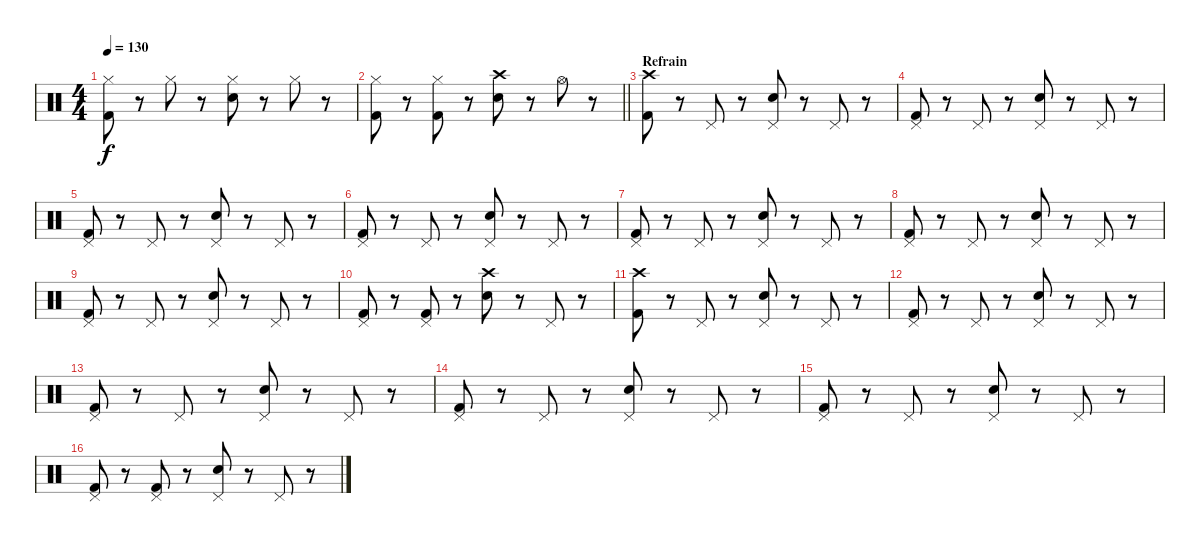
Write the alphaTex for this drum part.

\track "" {instrument percussion}
\staff {score}
\articulation defaults
\ts (4 4)
\tempo 130
\clef neutral
\ks c
("Hi-Hat (closed)" "Kick (hit) 2").8{dy f} r.8 "Hi-Hat (closed)".8 r.8 ("Hi-Hat (closed)" "Electric Snare (hit)").8 r.8 "Hi-Hat (closed)".8 r.8 |
\barLineRight lightlight
("Hi-Hat (closed)" "Kick (hit) 2").8 r.8 ("Hi-Hat (closed)" "Kick (hit) 2").8 r.8 ("Crash high (hit)" "Electric Snare (hit)").8 r.8 "Hi-Hat (open)".8 r.8 |
\section ("" "Refrain")
("Crash high (hit)" "Kick (hit) 2").8 r.8 "Pedal Hi-Hat (hit)".8 r.8 ("Pedal Hi-Hat (hit)" "Electric Snare (hit)").8 r.8 "Pedal Hi-Hat (hit)".8 r.8 |
("Pedal Hi-Hat (hit)" "Kick (hit) 2").8 r.8 "Pedal Hi-Hat (hit)".8 r.8 ("Pedal Hi-Hat (hit)" "Electric Snare (hit)").8 r.8 "Pedal Hi-Hat (hit)".8 r.8 |
("Pedal Hi-Hat (hit)" "Kick (hit) 2").8 r.8 "Pedal Hi-Hat (hit)".8 r.8 ("Pedal Hi-Hat (hit)" "Electric Snare (hit)").8 r.8 "Pedal Hi-Hat (hit)".8 r.8 |
("Pedal Hi-Hat (hit)" "Kick (hit) 2").8 r.8 "Pedal Hi-Hat (hit)".8 r.8 ("Pedal Hi-Hat (hit)" "Electric Snare (hit)").8 r.8 "Pedal Hi-Hat (hit)".8 r.8 |
("Pedal Hi-Hat (hit)" "Kick (hit) 2").8 r.8 "Pedal Hi-Hat (hit)".8 r.8 ("Pedal Hi-Hat (hit)" "Electric Snare (hit)").8 r.8 "Pedal Hi-Hat (hit)".8 r.8 |
("Pedal Hi-Hat (hit)" "Kick (hit) 2").8 r.8 "Pedal Hi-Hat (hit)".8 r.8 ("Pedal Hi-Hat (hit)" "Electric Snare (hit)").8 r.8 "Pedal Hi-Hat (hit)".8 r.8 |
("Pedal Hi-Hat (hit)" "Kick (hit) 2").8 r.8 "Pedal Hi-Hat (hit)".8 r.8 ("Pedal Hi-Hat (hit)" "Electric Snare (hit)").8 r.8 "Pedal Hi-Hat (hit)".8 r.8 |
("Pedal Hi-Hat (hit)" "Kick (hit) 2").8 r.8 ("Pedal Hi-Hat (hit)" "Kick (hit) 2").8 r.8 ("Crash high (hit)" "Electric Snare (hit)").8 r.8 "Pedal Hi-Hat (hit)".8 r.8 |
("Crash high (hit)" "Kick (hit) 2").8 r.8 "Pedal Hi-Hat (hit)".8 r.8 ("Pedal Hi-Hat (hit)" "Electric Snare (hit)").8 r.8 "Pedal Hi-Hat (hit)".8 r.8 |
("Pedal Hi-Hat (hit)" "Kick (hit) 2").8 r.8 "Pedal Hi-Hat (hit)".8 r.8 ("Pedal Hi-Hat (hit)" "Electric Snare (hit)").8 r.8 "Pedal Hi-Hat (hit)".8 r.8 |
("Pedal Hi-Hat (hit)" "Kick (hit) 2").8 r.8 "Pedal Hi-Hat (hit)".8 r.8 ("Pedal Hi-Hat (hit)" "Electric Snare (hit)").8 r.8 "Pedal Hi-Hat (hit)".8 r.8 |
("Pedal Hi-Hat (hit)" "Kick (hit) 2").8 r.8 "Pedal Hi-Hat (hit)".8 r.8 ("Pedal Hi-Hat (hit)" "Electric Snare (hit)").8 r.8 "Pedal Hi-Hat (hit)".8 r.8 |
("Pedal Hi-Hat (hit)" "Kick (hit) 2").8 r.8 "Pedal Hi-Hat (hit)".8 r.8 ("Pedal Hi-Hat (hit)" "Electric Snare (hit)").8 r.8 "Pedal Hi-Hat (hit)".8 r.8 |
("Pedal Hi-Hat (hit)" "Kick (hit) 2").8 r.8 ("Pedal Hi-Hat (hit)" "Kick (hit) 2").8 r.8 ("Pedal Hi-Hat (hit)" "Electric Snare (hit)").8 r.8 "Pedal Hi-Hat (hit)".8 r.8
